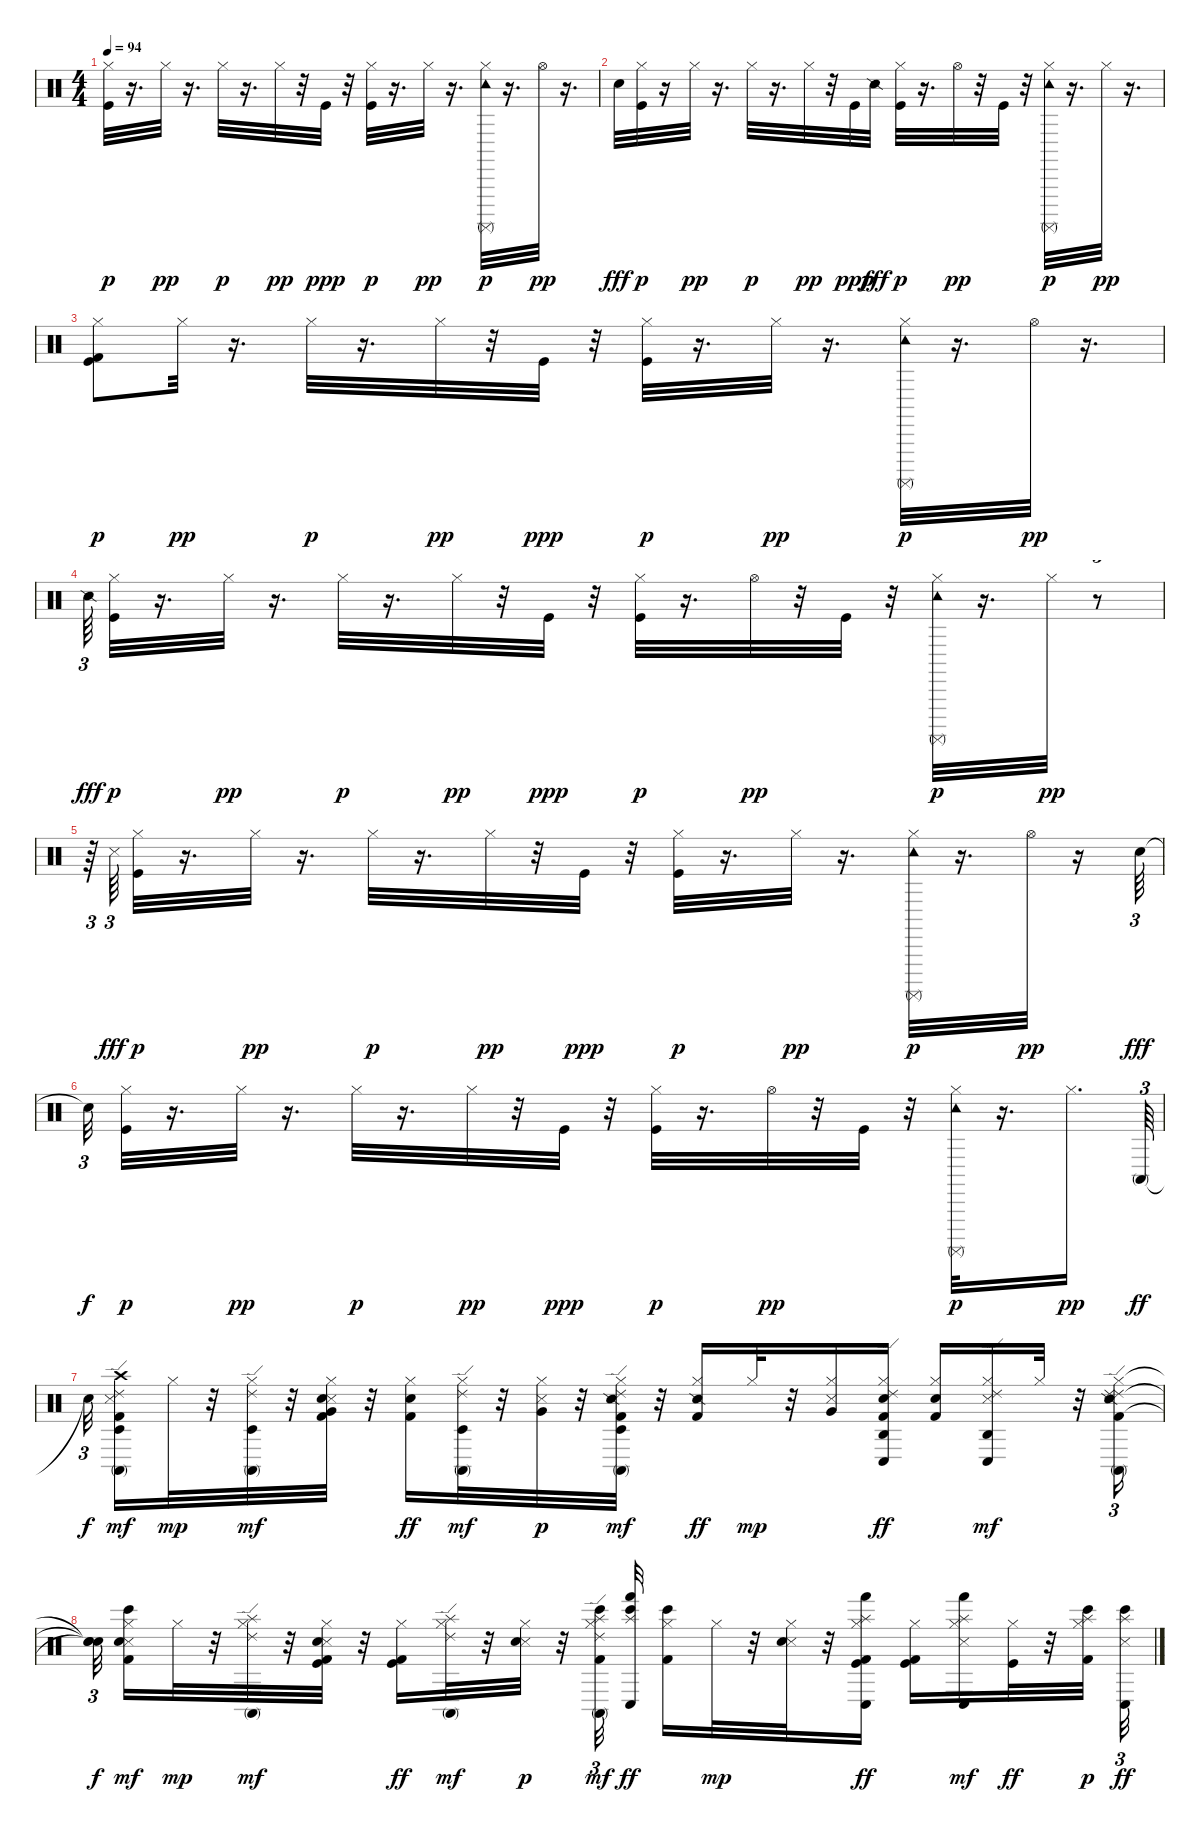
\track "" {instrument percussion}
\staff {score}
\articulation defaults
\ts (4 4)
\tempo 94
\clef neutral
\ks c
("Kick (hit)" "Hi-Hat (closed)").32{dy p} r.16{d} "Hi-Hat (closed)".32{dy pp} r.16{d} "Hi-Hat (closed)".32{dy p} r.16{d} "Hi-Hat (closed)".32{dy pp} r.32 "Kick (hit)".32{dy ppp} r.32 ("Kick (hit)" "Hi-Hat (closed)").32{dy p} r.16{d} "Hi-Hat (closed)".32{dy pp} r.16{d} ("Surdo (mute)" "Hi-Hat (closed)" "Tambourine (hit)").32{dy p} r.16{d} "Hi-Hat (open)".32{dy pp} r.16{d} |
"Snare (hit)".32{dy fff} ("Kick (hit)" "Hi-Hat (closed)").32{dy p} r.16 "Hi-Hat (closed)".32{dy pp} r.16{d} "Hi-Hat (closed)".32{dy p} r.16{d} "Hi-Hat (closed)".32{dy pp} r.32 "Kick (hit)".32{dy ppp} "Snare (side stick) 2".32{dy fff} ("Kick (hit)" "Hi-Hat (closed)").32{dy p} r.16{d} "Hi-Hat (open)".32{dy pp} r.32 "Kick (hit)".32 r.32 ("Surdo (mute)" "Hi-Hat (closed)" "Tambourine (hit)").32{dy p} r.16{d} "Hi-Hat (closed)".32{dy pp} r.16{d} |
("Kick (hit) 2" "Kick (hit)" "Hi-Hat (closed)").8{dy p} "Hi-Hat (closed)".32{dy pp} r.16{d} "Hi-Hat (closed)".32{dy p} r.16{d} "Hi-Hat (closed)".32{dy pp} r.32 "Kick (hit)".32{dy ppp} r.32 ("Kick (hit)" "Hi-Hat (closed)").32{dy p} r.16{d} "Hi-Hat (closed)".32{dy pp} r.16{d} ("Surdo (mute)" "Hi-Hat (closed)" "Tambourine (hit)").32{dy p} r.16{d} "Hi-Hat (open)".32{dy pp} r.16{d} |
"Snare (side stick) 2".64{tu (3 2) dy fff} ("Kick (hit)" "Hi-Hat (closed)").32{dy p} r.16{d} "Hi-Hat (closed)".32{dy pp} r.16{d} "Hi-Hat (closed)".32{dy p} r.16{d} "Hi-Hat (closed)".32{dy pp} r.32 "Kick (hit)".32{dy ppp} r.32 ("Kick (hit)" "Hi-Hat (closed)").32{dy p} r.16{d} "Hi-Hat (open)".32{dy pp} r.32 "Kick (hit)".32 r.32 ("Surdo (mute)" "Hi-Hat (closed)" "Tambourine (hit)").32{dy p} r.16{d} "Hi-Hat (closed)".32{dy pp} r.8{tu (3 2)} |
r.64{tu (3 2)} "Metronome (hit)".64{tu (3 2) dy fff} ("Kick (hit)" "Hi-Hat (closed)").32{dy p} r.16{d} "Hi-Hat (closed)".32{dy pp} r.16{d} "Hi-Hat (closed)".32{dy p} r.16{d} "Hi-Hat (closed)".32{dy pp} r.32 "Kick (hit)".32{dy ppp} r.32 ("Kick (hit)" "Hi-Hat (closed)").32{dy p} r.16{d} "Hi-Hat (closed)".32{dy pp} r.16{d} ("Surdo (mute)" "Hi-Hat (closed)" "Tambourine (hit)").32{dy p} r.16{d} "Hi-Hat (open)".32{dy pp} r.16 "Snare (hit)".64{tu (3 2) dy fff} |
"Snare (hit)"{t}.32{tu (3 2) dy f} ("Kick (hit)" "Hi-Hat (closed)").32{dy p} r.16{d} "Hi-Hat (closed)".32{dy pp} r.16{d} "Hi-Hat (closed)".32{dy p} r.16{d} "Hi-Hat (closed)".32{dy pp} r.32 "Kick (hit)".32{dy ppp} r.32 ("Kick (hit)" "Hi-Hat (closed)").32{dy p} r.16{d} "Hi-Hat (open)".32{dy pp} r.32 "Kick (hit)".32 r.32 ("Surdo (mute)" "Hi-Hat (closed)" "Tambourine (hit)").32{dy p} r.16{d} "Hi-Hat (closed)".16{d dy pp} "Conga high (mute)".64{tu (3 2) dy ff volume 12 balance 8} |
"Snare (hit)"{t}.32{tu (3 2) dy f beam splitsecondary} ("Conga high (mute)" "Timbale low (hit)" "Ride (edge) 2" "Crash high (hit)" "Kick (hit) 2" "Snare (side stick) 3").16{dy mf volume 9} "Hi-Hat (closed)".32{dy mp} r.32 ("Hi-Hat (closed)" "Conga high (mute)" "Timbale low (hit)" "Ride (edge) 2").32{dy mf} r.32 ("Kick (hit) 2" "Snare (side stick) 3" "Hi-Hat (closed)" "Snare (hit) 2" "Very Low Tom (hit)").32 r.32 ("Kick (hit) 2" "Hi-Hat (closed)" "Snare (hit) 2").16{dy ff} ("Hi-Hat (closed)" "Timbale low (hit)" "Conga high (mute)" "Ride (edge) 2").32{dy mf} r.32 ("Snare (side stick) 3" "Hi-Hat (closed)" "Very Low Tom (hit)").32{dy p} r.32 ("Kick (hit) 2" "Hi-Hat (closed)" "Snare (side stick) 2" "Conga high (mute)" "Ride (edge) 2" "Timbale low (hit)").32{dy mf} r.32 ("Kick (hit) 2" "Hi-Hat (closed)" "Snare (side stick) 2").16{dy ff} "Hi-Hat (closed)".32{dy mp} r.32 ("Snare (side stick) 3" "Hi-Hat (closed)" "Very Low Tom (hit)").16 ("Kick (hit) 2" "Hi-Hat (closed)" "Snare (hit) 2" "Agogo high (hit)" "Ride (edge) 2" "Conga low (hit)").16{dy ff} ("Kick (hit) 2" "Hi-Hat (closed)" "Snare (hit) 2").16 ("Snare (side stick) 3" "Hi-Hat (closed)" "Conga low (hit)" "Ride (edge) 2" "Agogo high (hit)").16{dy mf} "Hi-Hat (closed)".32 r.32 ("Kick (hit) 2" "Hi-Hat (closed)" "Snare (side stick) 2" "Ride (edge) 2" "Ride (edge) 2" "Conga high (mute)").16{tu (3 2) volume 7} |
("Snare (hit)"{t} "Snare (hit)"{t} "Snare (hit)"{t}).32{tu (3 2) dy f beam splitsecondary} ("Kick (hit) 2" "Snare (side stick) 3" "Hi-Hat (closed)" "Bongo High (hit)" "Electric Snare (hit)").16{dy mf} "Hi-Hat (closed)".32{dy mp} r.32 ("Hi-Hat (closed)" "Ride (edge) 2" "Conga high (mute)" "Splash (hit)").32{dy mf} r.32 ("Kick (hit) 2" "Snare (side stick) 3" "Hi-Hat (closed)" "Kick (hit)" "Electric Snare (hit)").32 r.32 ("Kick (hit) 2" "Hi-Hat (closed)" "Kick (hit)").16{dy ff} ("Hi-Hat (closed)" "Conga high (mute)" "Ride (edge) 2" "Splash (hit)").32{dy mf} r.32 ("Snare (side stick) 3" "Hi-Hat (closed)" "Electric Snare (hit)").32{dy p} r.32 ("Kick (hit) 2" "Hi-Hat (closed)" "Bongo High (hit)" "Ride (edge) 2" "Splash (hit)" "Conga high (mute)").32{tu (3 2) dy mf volume 7} ("Hand (hit)" "Conga low (hit)" "Splash (hit)" "Bongo High (hit)").32{dy ff volume 6} ("Kick (hit) 2" "Hi-Hat (closed)" "Bongo High (hit)").16 "Hi-Hat (closed)".32{dy mp} r.32 ("Snare (side stick) 3" "Hi-Hat (closed)" "Electric Snare (hit)").32 r.32 ("Kick (hit) 2" "Hi-Hat (closed)" "Kick (hit)" "Conga low (hit)" "Splash (hit)" "Hand (hit)").16{dy ff} ("Kick (hit) 2" "Hi-Hat (closed)" "Kick (hit)").16 ("Snare (side stick) 3" "Hi-Hat (closed)" "Hand (hit)" "Splash (hit)" "Conga low (hit)").16{dy mf} ("Hi-Hat (closed)" "Kick (hit)").32{dy ff} r.32 ("Kick (hit) 2" "Hi-Hat (closed)" "Bongo High (hit)" "Splash (hit)").32{dy p} ("Bongo High (hit)" "Conga low (hit)" "Splash (hit)" "Metronome (hit)").32{tu (3 2) dy ff volume 6}
